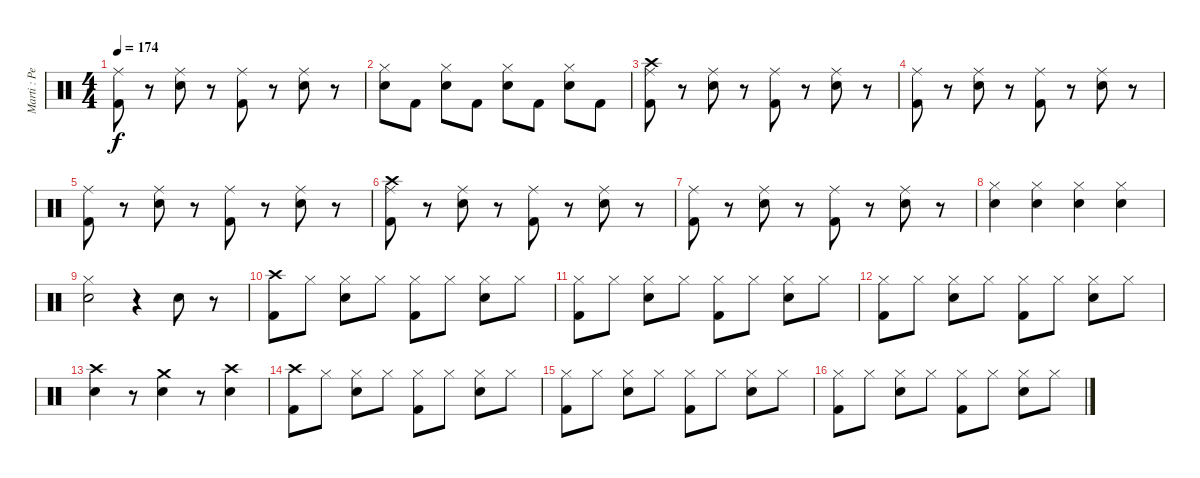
\track ("Marti : Percussion" "Marti : Pe") {instrument percussion}
\staff {score}
\articulation defaults
\ts (4 4)
\tempo 174
\clef neutral
\ks c
("Kick (hit) 2" "Ride (middle)").8{dy f} r.8 ("Electric Snare (hit)" "Ride (middle)").8 r.8 ("Kick (hit) 2" "Ride (middle)").8 r.8 ("Electric Snare (hit)" "Ride (middle)").8 r.8 |
("Hi-Hat (closed)" "Electric Snare (hit)").8 "Kick (hit) 2".8 ("Hi-Hat (closed)" "Electric Snare (hit)").8 "Kick (hit) 2".8 ("Hi-Hat (closed)" "Electric Snare (hit)").8 "Kick (hit) 2".8 ("Hi-Hat (closed)" "Electric Snare (hit)").8 "Kick (hit) 2".8 |
("Crash high (hit)" "Kick (hit) 2" "Ride (middle)").8 r.8 ("Electric Snare (hit)" "Ride (middle)").8 r.8 ("Kick (hit) 2" "Ride (middle)").8 r.8 ("Electric Snare (hit)" "Ride (middle)").8 r.8 |
("Kick (hit) 2" "Ride (middle)").8 r.8 ("Electric Snare (hit)" "Ride (middle)").8 r.8 ("Kick (hit) 2" "Ride (middle)").8 r.8 ("Electric Snare (hit)" "Ride (middle)").8 r.8 |
("Kick (hit) 2" "Ride (middle)").8 r.8 ("Electric Snare (hit)" "Ride (middle)").8 r.8 ("Kick (hit) 2" "Ride (middle)").8 r.8 ("Electric Snare (hit)" "Ride (middle)").8 r.8 |
("Crash high (hit)" "Kick (hit) 2" "Ride (middle)").8 r.8 ("Electric Snare (hit)" "Ride (middle)").8 r.8 ("Kick (hit) 2" "Ride (middle)").8 r.8 ("Electric Snare (hit)" "Ride (middle)").8 r.8 |
("Kick (hit) 2" "Ride (middle)").8 r.8 ("Electric Snare (hit)" "Ride (middle)").8 r.8 ("Kick (hit) 2" "Ride (middle)").8 r.8 ("Electric Snare (hit)" "Ride (middle)").8 r.8 |
("Hi-Hat (closed)" "Electric Snare (hit)").4 ("Hi-Hat (closed)" "Electric Snare (hit)").4 ("Hi-Hat (closed)" "Electric Snare (hit)").4 ("Hi-Hat (closed)" "Electric Snare (hit)").4 |
("Hi-Hat (closed)" "Electric Snare (hit)").2 r.4 "Electric Snare (hit)".8 r.8 |
("Kick (hit) 2" "Crash high (hit)").8 "Hi-Hat (closed)".8 ("Electric Snare (hit)" "Hi-Hat (closed)").8 "Hi-Hat (closed)".8 ("Kick (hit) 2" "Hi-Hat (closed)").8 "Hi-Hat (closed)".8 ("Electric Snare (hit)" "Hi-Hat (closed)").8 "Hi-Hat (closed)".8 |
("Kick (hit) 2" "Hi-Hat (closed)").8 "Hi-Hat (closed)".8 ("Electric Snare (hit)" "Hi-Hat (closed)").8 "Hi-Hat (closed)".8 ("Kick (hit) 2" "Hi-Hat (closed)").8 "Hi-Hat (closed)".8 ("Electric Snare (hit)" "Hi-Hat (closed)").8 "Hi-Hat (closed)".8 |
("Kick (hit) 2" "Hi-Hat (closed)").8 "Hi-Hat (closed)".8 ("Electric Snare (hit)" "Hi-Hat (closed)").8 "Hi-Hat (closed)".8 ("Kick (hit) 2" "Hi-Hat (closed)").8 "Hi-Hat (closed)".8 ("Electric Snare (hit)" "Hi-Hat (closed)").8 "Hi-Hat (closed)".8 |
("Electric Snare (hit)" "Crash high (hit)").4 r.8 ("Electric Snare (hit)" "Crash medium (hit)").4 r.8 ("Electric Snare (hit)" "Crash high (hit)").4 |
("Kick (hit) 2" "Crash high (hit)").8 "Hi-Hat (closed)".8 ("Electric Snare (hit)" "Hi-Hat (closed)").8 "Hi-Hat (closed)".8 ("Kick (hit) 2" "Hi-Hat (closed)").8 "Hi-Hat (closed)".8 ("Electric Snare (hit)" "Hi-Hat (closed)").8 "Hi-Hat (closed)".8 |
("Kick (hit) 2" "Hi-Hat (closed)").8 "Hi-Hat (closed)".8 ("Electric Snare (hit)" "Hi-Hat (closed)").8 "Hi-Hat (closed)".8 ("Kick (hit) 2" "Hi-Hat (closed)").8 "Hi-Hat (closed)".8 ("Electric Snare (hit)" "Hi-Hat (closed)").8 "Hi-Hat (closed)".8 |
("Kick (hit) 2" "Hi-Hat (closed)").8 "Hi-Hat (closed)".8 ("Electric Snare (hit)" "Hi-Hat (closed)").8 "Hi-Hat (closed)".8 ("Kick (hit) 2" "Hi-Hat (closed)").8 "Hi-Hat (closed)".8 ("Electric Snare (hit)" "Hi-Hat (closed)").8 "Hi-Hat (closed)".8
